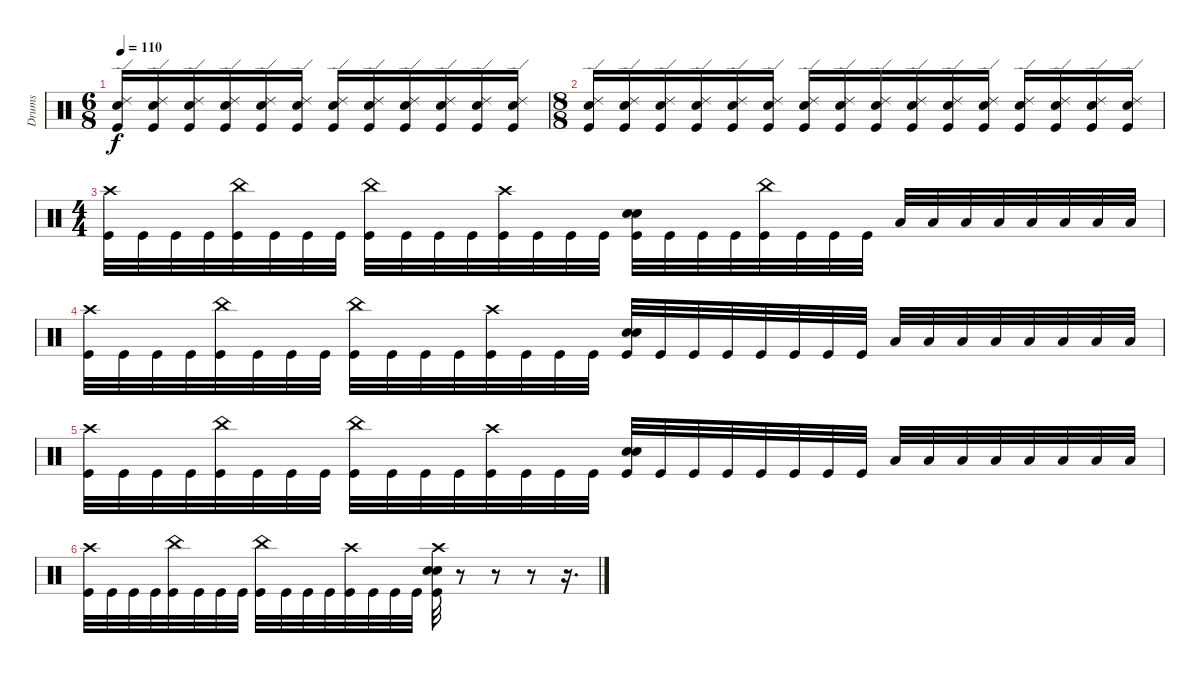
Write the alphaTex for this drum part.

\track ("Drums" "Drums") {instrument percussion}
\staff {score}
\articulation defaults
\ts (6 8)
\tempo 110
\clef neutral
\ks c
("Ride (edge) 2" "Electric Snare (hit)" "Kick (hit)").16{dy f} ("Ride (edge) 2" "Electric Snare (hit)" "Kick (hit)").16 ("Ride (edge) 2" "Electric Snare (hit)" "Kick (hit)").16 ("Ride (edge) 2" "Electric Snare (hit)" "Kick (hit)").16 ("Ride (edge) 2" "Electric Snare (hit)" "Kick (hit)").16 ("Ride (edge) 2" "Electric Snare (hit)" "Kick (hit)").16 ("Ride (edge) 2" "Electric Snare (hit)" "Kick (hit)").16 ("Ride (edge) 2" "Electric Snare (hit)" "Kick (hit)").16 ("Ride (edge) 2" "Electric Snare (hit)" "Kick (hit)").16 ("Ride (edge) 2" "Electric Snare (hit)" "Kick (hit)").16 ("Ride (edge) 2" "Electric Snare (hit)" "Kick (hit)").16 ("Ride (edge) 2" "Electric Snare (hit)" "Kick (hit)").16 |
\ts (8 8)
("Ride (edge) 2" "Electric Snare (hit)" "Kick (hit)").16 ("Ride (edge) 2" "Electric Snare (hit)" "Kick (hit)").16 ("Ride (edge) 2" "Electric Snare (hit)" "Kick (hit)").16 ("Ride (edge) 2" "Electric Snare (hit)" "Kick (hit)").16 ("Ride (edge) 2" "Electric Snare (hit)" "Kick (hit)").16 ("Ride (edge) 2" "Electric Snare (hit)" "Kick (hit)").16 ("Ride (edge) 2" "Electric Snare (hit)" "Kick (hit)").16 ("Ride (edge) 2" "Electric Snare (hit)" "Kick (hit)").16 ("Ride (edge) 2" "Electric Snare (hit)" "Kick (hit)").16 ("Ride (edge) 2" "Electric Snare (hit)" "Kick (hit)").16 ("Ride (edge) 2" "Electric Snare (hit)" "Kick (hit)").16 ("Ride (edge) 2" "Electric Snare (hit)" "Kick (hit)").16 ("Ride (edge) 2" "Electric Snare (hit)" "Kick (hit)").16 ("Ride (edge) 2" "Electric Snare (hit)" "Kick (hit)").16 ("Ride (edge) 2" "Electric Snare (hit)" "Kick (hit)").16 ("Ride (edge) 2" "Electric Snare (hit)" "Kick (hit)").16 |
\ts (4 4)
("Crash high (hit)" "Kick (hit)").32 "Kick (hit)".32 "Kick (hit)".32 "Kick (hit)".32 ("China (hit)" "Kick (hit)").32 "Kick (hit)".32 "Kick (hit)".32 "Kick (hit)".32 ("China (hit)" "Kick (hit)").32 "Kick (hit)".32 "Kick (hit)".32 "Kick (hit)".32 ("Crash high (hit)" "Kick (hit)").32 "Kick (hit)".32 "Kick (hit)".32 "Kick (hit)".32 ("Electric Snare (hit)" "Electric Snare (hit)" "Kick (hit)").32 "Kick (hit)".32 "Kick (hit)".32 "Kick (hit)".32 ("China (hit)" "Kick (hit)").32 "Kick (hit)".32 "Kick (hit)".32 "Kick (hit)".32 "Low Tom (hit)".32 "Low Tom (hit)".32 "Low Tom (hit)".32 "Low Tom (hit)".32 "Low Floor Tom (hit)".32 "Low Floor Tom (hit)".32 "Low Floor Tom (hit)".32 "Low Floor Tom (hit)".32 |
("Crash high (hit)" "Kick (hit)").32 "Kick (hit)".32 "Kick (hit)".32 "Kick (hit)".32 ("China (hit)" "Kick (hit)").32 "Kick (hit)".32 "Kick (hit)".32 "Kick (hit)".32 ("China (hit)" "Kick (hit)").32 "Kick (hit)".32 "Kick (hit)".32 "Kick (hit)".32 ("Crash high (hit)" "Kick (hit)").32 "Kick (hit)".32 "Kick (hit)".32 "Kick (hit)".32 ("Electric Snare (hit)" "Electric Snare (hit)" "Kick (hit)").32 "Kick (hit)".32 "Kick (hit)".32 "Kick (hit)".32 "Kick (hit)".32 "Kick (hit)".32 "Kick (hit)".32 "Kick (hit)".32 "Low Tom (hit)".32 "Low Tom (hit)".32 "Low Tom (hit)".32 "Low Tom (hit)".32 "Low Floor Tom (hit)".32 "Low Floor Tom (hit)".32 "Low Floor Tom (hit)".32 "Low Floor Tom (hit)".32 |
("Crash high (hit)" "Kick (hit)").32 "Kick (hit)".32 "Kick (hit)".32 "Kick (hit)".32 ("China (hit)" "Kick (hit)").32 "Kick (hit)".32 "Kick (hit)".32 "Kick (hit)".32 ("China (hit)" "Kick (hit)").32 "Kick (hit)".32 "Kick (hit)".32 "Kick (hit)".32 ("Crash high (hit)" "Kick (hit)").32 "Kick (hit)".32 "Kick (hit)".32 "Kick (hit)".32 ("Electric Snare (hit)" "Electric Snare (hit)" "Kick (hit)").32 "Kick (hit)".32 "Kick (hit)".32 "Kick (hit)".32 "Kick (hit)".32 "Kick (hit)".32 "Kick (hit)".32 "Kick (hit)".32 "Low Tom (hit)".32 "Low Tom (hit)".32 "Low Tom (hit)".32 "Low Tom (hit)".32 "Low Floor Tom (hit)".32 "Low Floor Tom (hit)".32 "Low Floor Tom (hit)".32 "Low Floor Tom (hit)".32 |
("Crash high (hit)" "Kick (hit)").32 "Kick (hit)".32 "Kick (hit)".32 "Kick (hit)".32 ("China (hit)" "Kick (hit)").32 "Kick (hit)".32 "Kick (hit)".32 "Kick (hit)".32 ("China (hit)" "Kick (hit)").32 "Kick (hit)".32 "Kick (hit)".32 "Kick (hit)".32 ("Crash high (hit)" "Kick (hit)").32 "Kick (hit)".32 "Kick (hit)".32 "Kick (hit)".32 ("Crash high (hit)" "Electric Snare (hit)" "Electric Snare (hit)" "Kick (hit)").32 r.8 r.8 r.8 r.16{d}
